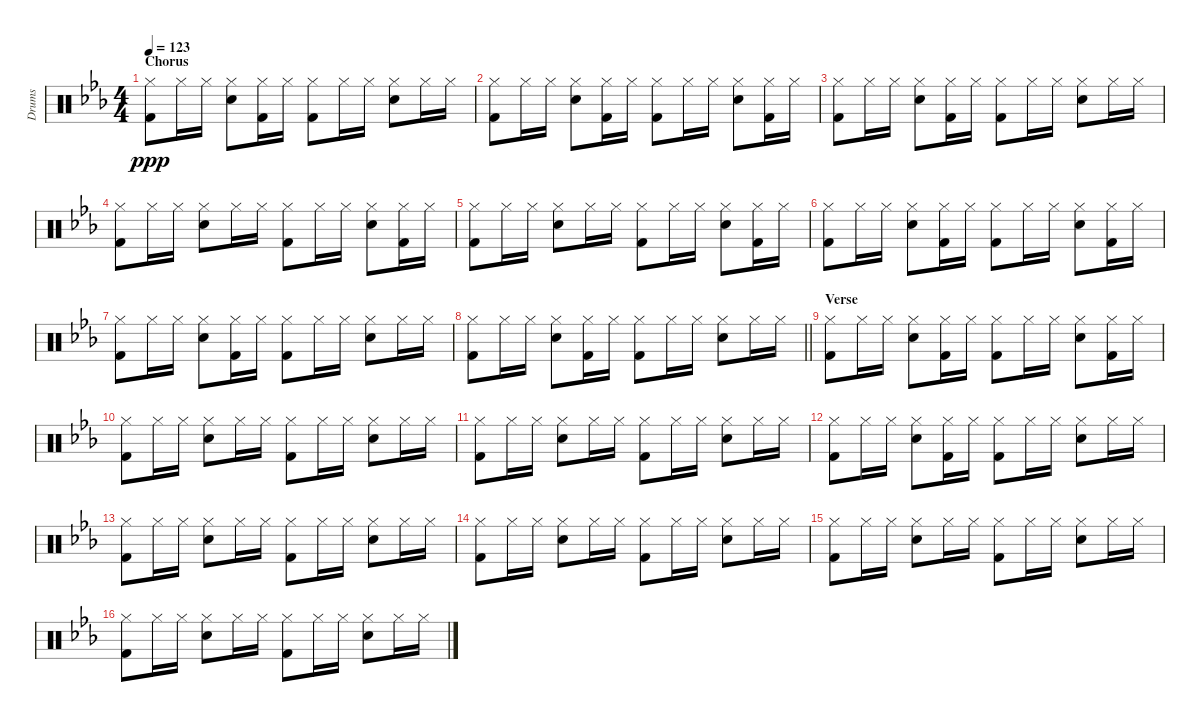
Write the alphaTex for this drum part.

\track ("Drums" "Drums") {instrument percussion}
\staff {score}
\articulation defaults
\ts (4 4)
\section ("" "Chorus")
\tempo 123
\clef neutral
\ks eb
("Hi-Hat (closed)" "Kick (hit) 2").8{dy ppp} "Hi-Hat (closed)".16 "Hi-Hat (closed)".16 ("Hi-Hat (closed)" "Electric Snare (hit)").8 ("Hi-Hat (closed)" "Kick (hit) 2").16 "Hi-Hat (closed)".16 ("Hi-Hat (closed)" "Kick (hit) 2").8 "Hi-Hat (closed)".16 "Hi-Hat (closed)".16 ("Hi-Hat (closed)" "Electric Snare (hit)").8 "Hi-Hat (closed)".16 "Hi-Hat (closed)".16 |
("Hi-Hat (closed)" "Kick (hit) 2").8 "Hi-Hat (closed)".16 "Hi-Hat (closed)".16 ("Hi-Hat (closed)" "Electric Snare (hit)").8 ("Hi-Hat (closed)" "Kick (hit) 2").16 "Hi-Hat (closed)".16 ("Hi-Hat (closed)" "Kick (hit) 2").8 "Hi-Hat (closed)".16 "Hi-Hat (closed)".16 ("Hi-Hat (closed)" "Electric Snare (hit)").8 ("Hi-Hat (closed)" "Kick (hit) 2").16 "Hi-Hat (closed)".16 |
("Hi-Hat (closed)" "Kick (hit) 2").8 "Hi-Hat (closed)".16 "Hi-Hat (closed)".16 ("Hi-Hat (closed)" "Electric Snare (hit)").8 ("Hi-Hat (closed)" "Kick (hit) 2").16 "Hi-Hat (closed)".16 ("Hi-Hat (closed)" "Kick (hit) 2").8 "Hi-Hat (closed)".16 "Hi-Hat (closed)".16 ("Hi-Hat (closed)" "Electric Snare (hit)").8 "Hi-Hat (closed)".16 "Hi-Hat (closed)".16 |
("Hi-Hat (closed)" "Kick (hit) 2").8 "Hi-Hat (closed)".16 "Hi-Hat (closed)".16 ("Hi-Hat (closed)" "Electric Snare (hit)").8 "Hi-Hat (closed)".16 "Hi-Hat (closed)".16 ("Hi-Hat (closed)" "Kick (hit) 2").8 "Hi-Hat (closed)".16 "Hi-Hat (closed)".16 ("Hi-Hat (closed)" "Electric Snare (hit)").8 ("Hi-Hat (closed)" "Kick (hit) 2").16 "Hi-Hat (closed)".16 |
("Hi-Hat (closed)" "Kick (hit) 2").8 "Hi-Hat (closed)".16 "Hi-Hat (closed)".16 ("Hi-Hat (closed)" "Electric Snare (hit)").8 "Hi-Hat (closed)".16 "Hi-Hat (closed)".16 ("Hi-Hat (closed)" "Kick (hit) 2").8 "Hi-Hat (closed)".16 "Hi-Hat (closed)".16 ("Hi-Hat (closed)" "Electric Snare (hit)").8 ("Hi-Hat (closed)" "Kick (hit) 2").16 "Hi-Hat (closed)".16 |
("Hi-Hat (closed)" "Kick (hit) 2").8 "Hi-Hat (closed)".16 "Hi-Hat (closed)".16 ("Hi-Hat (closed)" "Electric Snare (hit)").8 ("Hi-Hat (closed)" "Kick (hit) 2").16 "Hi-Hat (closed)".16 ("Hi-Hat (closed)" "Kick (hit) 2").8 "Hi-Hat (closed)".16 "Hi-Hat (closed)".16 ("Hi-Hat (closed)" "Electric Snare (hit)").8 ("Hi-Hat (closed)" "Kick (hit) 2").16 "Hi-Hat (closed)".16 |
("Hi-Hat (closed)" "Kick (hit) 2").8 "Hi-Hat (closed)".16 "Hi-Hat (closed)".16 ("Hi-Hat (closed)" "Electric Snare (hit)").8 ("Hi-Hat (closed)" "Kick (hit) 2").16 "Hi-Hat (closed)".16 ("Hi-Hat (closed)" "Kick (hit) 2").8 "Hi-Hat (closed)".16 "Hi-Hat (closed)".16 ("Hi-Hat (closed)" "Electric Snare (hit)").8 "Hi-Hat (closed)".16 "Hi-Hat (closed)".16 |
\barLineRight lightlight
("Hi-Hat (closed)" "Kick (hit) 2").8 "Hi-Hat (closed)".16 "Hi-Hat (closed)".16 ("Hi-Hat (closed)" "Electric Snare (hit)").8 ("Hi-Hat (closed)" "Kick (hit) 2").16 "Hi-Hat (closed)".16 ("Hi-Hat (closed)" "Kick (hit) 2").8 "Hi-Hat (closed)".16 "Hi-Hat (closed)".16 ("Hi-Hat (closed)" "Electric Snare (hit)").8 "Hi-Hat (closed)".16 "Hi-Hat (closed)".16 |
\section ("" "Verse")
("Hi-Hat (closed)" "Kick (hit) 2").8 "Hi-Hat (closed)".16 "Hi-Hat (closed)".16 ("Hi-Hat (closed)" "Electric Snare (hit)").8 ("Hi-Hat (closed)" "Kick (hit) 2").16 "Hi-Hat (closed)".16 ("Hi-Hat (closed)" "Kick (hit) 2").8 "Hi-Hat (closed)".16 "Hi-Hat (closed)".16 ("Hi-Hat (closed)" "Electric Snare (hit)").8 ("Hi-Hat (closed)" "Kick (hit) 2").16 "Hi-Hat (closed)".16 |
("Hi-Hat (closed)" "Kick (hit) 2").8 "Hi-Hat (closed)".16 "Hi-Hat (closed)".16 ("Hi-Hat (closed)" "Electric Snare (hit)").8 "Hi-Hat (closed)".16 "Hi-Hat (closed)".16 ("Hi-Hat (closed)" "Kick (hit) 2").8 "Hi-Hat (closed)".16 "Hi-Hat (closed)".16 ("Hi-Hat (closed)" "Electric Snare (hit)").8 "Hi-Hat (closed)".16 "Hi-Hat (closed)".16 |
("Hi-Hat (closed)" "Kick (hit) 2").8 "Hi-Hat (closed)".16 "Hi-Hat (closed)".16 ("Hi-Hat (closed)" "Electric Snare (hit)").8 "Hi-Hat (closed)".16 "Hi-Hat (closed)".16 ("Hi-Hat (closed)" "Kick (hit) 2").8 "Hi-Hat (closed)".16 "Hi-Hat (closed)".16 ("Hi-Hat (closed)" "Electric Snare (hit)").8 "Hi-Hat (closed)".16 "Hi-Hat (closed)".16 |
("Hi-Hat (closed)" "Kick (hit) 2").8 "Hi-Hat (closed)".16 "Hi-Hat (closed)".16 ("Hi-Hat (closed)" "Electric Snare (hit)").8 ("Hi-Hat (closed)" "Kick (hit) 2").16 "Hi-Hat (closed)".16 ("Hi-Hat (closed)" "Kick (hit) 2").8 "Hi-Hat (closed)".16 "Hi-Hat (closed)".16 ("Hi-Hat (closed)" "Electric Snare (hit)").8 "Hi-Hat (closed)".16 "Hi-Hat (closed)".16 |
("Hi-Hat (closed)" "Kick (hit) 2").8 "Hi-Hat (closed)".16 "Hi-Hat (closed)".16 ("Hi-Hat (closed)" "Electric Snare (hit)").8 "Hi-Hat (closed)".16 "Hi-Hat (closed)".16 ("Hi-Hat (closed)" "Kick (hit) 2").8 "Hi-Hat (closed)".16 "Hi-Hat (closed)".16 ("Hi-Hat (closed)" "Electric Snare (hit)").8 "Hi-Hat (closed)".16 "Hi-Hat (closed)".16 |
("Hi-Hat (closed)" "Kick (hit) 2").8 "Hi-Hat (closed)".16 "Hi-Hat (closed)".16 ("Hi-Hat (closed)" "Electric Snare (hit)").8 "Hi-Hat (closed)".16 "Hi-Hat (closed)".16 ("Hi-Hat (closed)" "Kick (hit) 2").8 "Hi-Hat (closed)".16 "Hi-Hat (closed)".16 ("Hi-Hat (closed)" "Electric Snare (hit)").8 "Hi-Hat (closed)".16 "Hi-Hat (closed)".16 |
("Hi-Hat (closed)" "Kick (hit) 2").8 "Hi-Hat (closed)".16 "Hi-Hat (closed)".16 ("Hi-Hat (closed)" "Electric Snare (hit)").8 "Hi-Hat (closed)".16 "Hi-Hat (closed)".16 ("Hi-Hat (closed)" "Kick (hit) 2").8 "Hi-Hat (closed)".16 "Hi-Hat (closed)".16 ("Hi-Hat (closed)" "Electric Snare (hit)").8 "Hi-Hat (closed)".16 "Hi-Hat (closed)".16 |
("Hi-Hat (closed)" "Kick (hit) 2").8 "Hi-Hat (closed)".16 "Hi-Hat (closed)".16 ("Hi-Hat (closed)" "Electric Snare (hit)").8 "Hi-Hat (closed)".16 "Hi-Hat (closed)".16 ("Hi-Hat (closed)" "Kick (hit) 2").8 "Hi-Hat (closed)".16 "Hi-Hat (closed)".16 ("Hi-Hat (closed)" "Electric Snare (hit)").8 "Hi-Hat (closed)".16 "Hi-Hat (closed)".16
